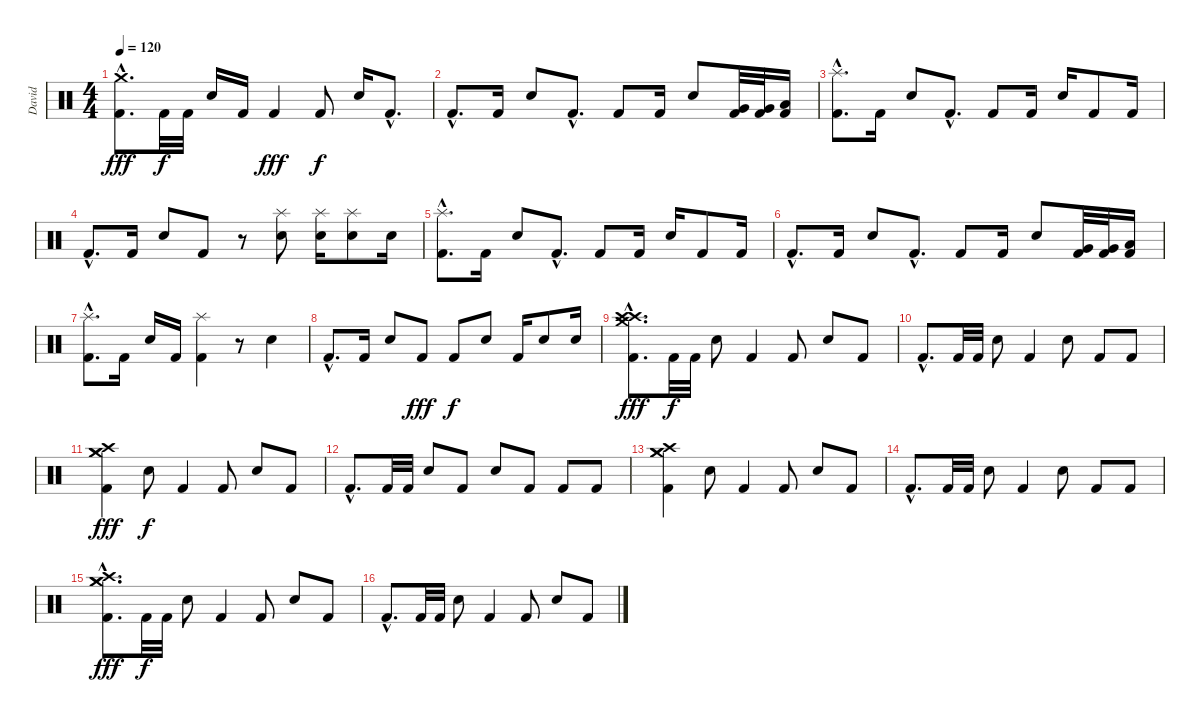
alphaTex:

\track ("David " "David ") {instrument percussion}
\staff {score}
\articulation defaults
\ts (4 4)
\tempo 120
\clef neutral
\ks c
("Crash medium (hit)"{hac} "Kick (hit) 2"{hac}).8{d dy fff} "Kick (hit) 2".32{dy f} "Kick (hit) 2".32 "Snare (hit) 2".16 "Kick (hit) 2".16 "Kick (hit) 2".4{dy fff} "Kick (hit) 2".8{dy f} "Snare (hit) 2".16 "Kick (hit) 2"{hac}.8{d} |
"Kick (hit) 2"{hac}.8{d} "Kick (hit) 2".16 "Snare (hit) 2".8 "Kick (hit) 2"{hac}.8{d} "Kick (hit) 2".8 "Kick (hit) 2".16 "Snare (hit) 2".8 ("Very Low Tom (hit)" "Kick (hit) 2").32 ("Very Low Tom (hit)" "Kick (hit) 2").32 ("Low Floor Tom (hit)" "Kick (hit) 2").16 |
("Splash (hit)"{hac} "Kick (hit) 2"{hac}).8{d} "Kick (hit) 2".16 "Snare (hit) 2".8 "Kick (hit) 2"{hac}.8{d} "Kick (hit) 2".8 "Kick (hit) 2".16 "Snare (hit) 2".16 "Kick (hit) 2".8 "Kick (hit) 2".16 |
"Kick (hit) 2"{hac}.8{d} "Kick (hit) 2".16 "Snare (hit) 2".8 "Kick (hit) 2".8 r.8 ("Splash (hit)" "Snare (hit) 2").8 ("Splash (hit)" "Snare (hit) 2").16 ("Splash (hit)" "Snare (hit) 2").8 "Snare (hit) 2".16 |
("Splash (hit)"{hac} "Kick (hit) 2"{hac}).8{d} "Kick (hit) 2".16 "Snare (hit) 2".8 "Kick (hit) 2"{hac}.8{d} "Kick (hit) 2".8 "Kick (hit) 2".16 "Snare (hit) 2".16 "Kick (hit) 2".8 "Kick (hit) 2".16 |
"Kick (hit) 2"{hac}.8{d} "Kick (hit) 2".16 "Snare (hit) 2".8 "Kick (hit) 2"{hac}.8{d} "Kick (hit) 2".8 "Kick (hit) 2".16 "Snare (hit) 2".8 ("Very Low Tom (hit)" "Kick (hit) 2").32 ("Very Low Tom (hit)" "Kick (hit) 2").32 ("Low Floor Tom (hit)" "Kick (hit) 2").16 |
("Splash (hit)"{hac} "Kick (hit) 2"{hac}).8{d} "Kick (hit) 2".16 "Snare (hit) 2".16 "Kick (hit) 2".16 ("Splash (hit)" "Kick (hit) 2").4 r.8 "Snare (hit) 2".4 |
"Kick (hit) 2"{hac}.8{d} "Kick (hit) 2".16 "Snare (hit) 2".8 "Kick (hit) 2".8{dy fff} "Kick (hit) 2".8{dy f} "Snare (hit) 2".8 "Kick (hit) 2".16 "Snare (hit) 2".8 "Snare (hit) 2".16 |
("Crash high (hit)"{hac} "Crash medium (hit)"{hac} "Crash high (hit)"{hac} "Kick (hit) 2"{hac}).8{d dy fff} "Kick (hit) 2".32{dy f} "Kick (hit) 2".32 "Snare (hit) 2".8 "Kick (hit) 2".4 "Kick (hit) 2".8 "Snare (hit) 2".8 "Kick (hit) 2".8 |
"Kick (hit) 2"{hac}.8{d} "Kick (hit) 2".32 "Kick (hit) 2".32 "Snare (hit) 2".8 "Kick (hit) 2".4 "Snare (hit) 2".8 "Kick (hit) 2".8 "Kick (hit) 2".8 |
("Crash medium (hit)" "Crash high (hit)" "Crash medium (hit)" "Kick (hit) 2").4{dy fff} "Snare (hit) 2".8{dy f} "Kick (hit) 2".4 "Kick (hit) 2".8 "Snare (hit) 2".8 "Kick (hit) 2".8 |
"Kick (hit) 2"{hac}.8{d} "Kick (hit) 2".32 "Kick (hit) 2".32 "Snare (hit) 2".8 "Kick (hit) 2".8 "Snare (hit) 2".8 "Kick (hit) 2".8 "Kick (hit) 2".8 "Kick (hit) 2".8 |
("Crash medium (hit)" "Crash high (hit)" "Crash medium (hit)" "Kick (hit) 2").4 "Snare (hit) 2".8 "Kick (hit) 2".4 "Kick (hit) 2".8 "Snare (hit) 2".8 "Kick (hit) 2".8 |
"Kick (hit) 2"{hac}.8{d} "Kick (hit) 2".32 "Kick (hit) 2".32 "Snare (hit) 2".8 "Kick (hit) 2".4 "Snare (hit) 2".8 "Kick (hit) 2".8 "Kick (hit) 2".8 |
("Crash medium (hit)"{hac} "Crash high (hit)"{hac} "Crash medium (hit)"{hac} "Kick (hit) 2"{hac}).8{d dy fff} "Kick (hit) 2".32{dy f} "Kick (hit) 2".32 "Snare (hit) 2".8 "Kick (hit) 2".4 "Kick (hit) 2".8 "Snare (hit) 2".8 "Kick (hit) 2".8 |
"Kick (hit) 2"{hac}.8{d} "Kick (hit) 2".32 "Kick (hit) 2".32 "Snare (hit) 2".8 "Kick (hit) 2".4 "Kick (hit) 2".8 "Snare (hit) 2".8 "Kick (hit) 2".8
